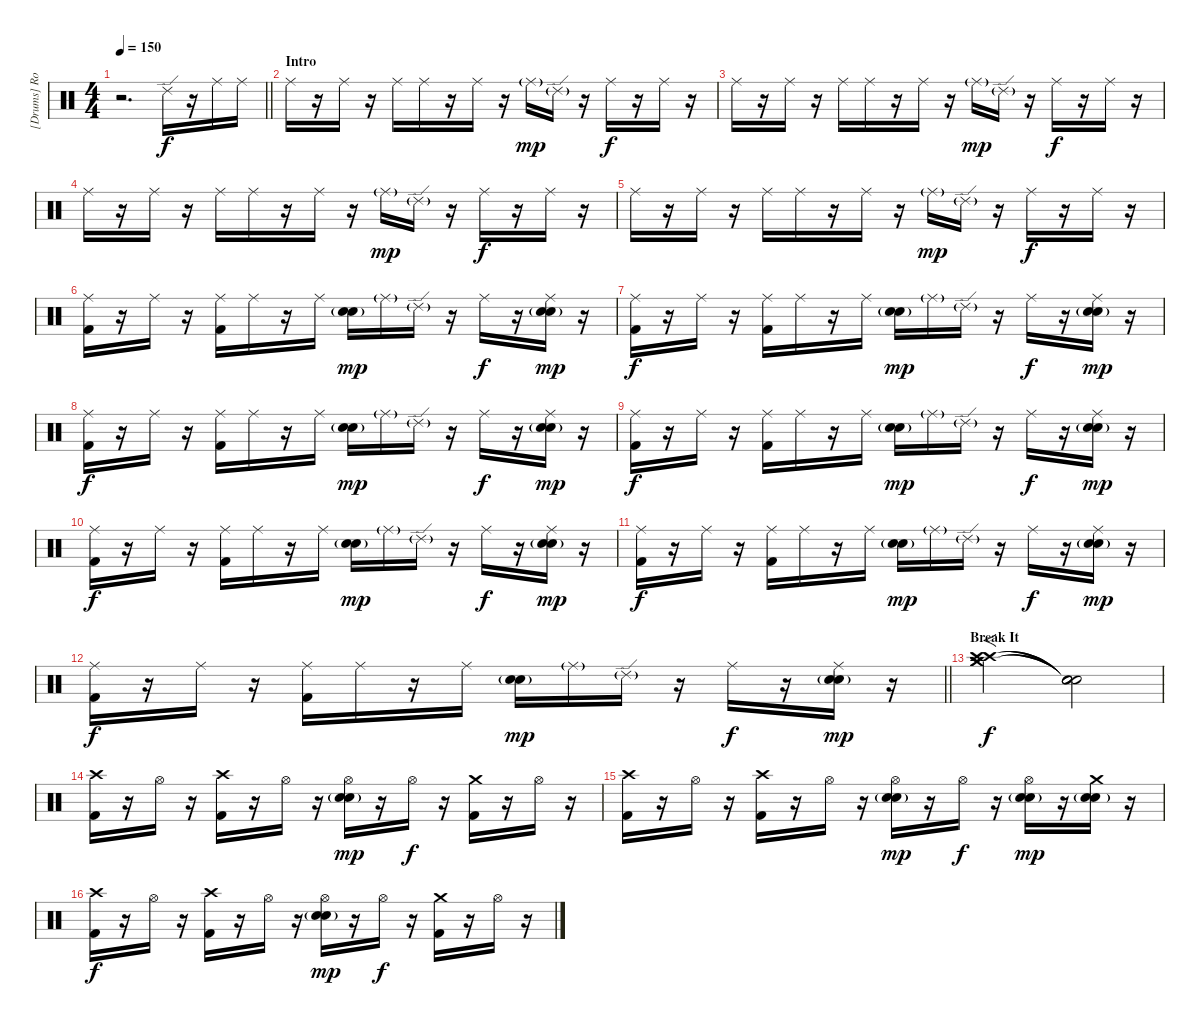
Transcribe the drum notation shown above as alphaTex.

\track ("[Drums] Rob Bourdon" "[Drums] Ro") {instrument percussion}
\staff {score}
\articulation defaults
\ts (4 4)
\tempo 150
\clef neutral
\barLineRight lightlight
\ks c
r.2{d dy f} "Ride (edge) 2".16 r.16 "Ride (middle)".16 "Ride (middle)".16 |
\section ("" "Intro")
"Ride (middle)".16 r.16 "Ride (middle)".16 r.16 "Ride (middle)".16 "Ride (middle)".16 r.16 "Ride (middle)".16 r.16 "Ride (middle)"{g}.16{dy mp} "Ride (edge) 2"{g}.16 r.16 "Ride (middle)".16{dy f} r.16 "Ride (middle)".16 r.16 |
"Ride (middle)".16 r.16 "Ride (middle)".16 r.16 "Ride (middle)".16 "Ride (middle)".16 r.16 "Ride (middle)".16 r.16 "Ride (middle)"{g}.16{dy mp} "Ride (edge) 2"{g}.16 r.16 "Ride (middle)".16{dy f} r.16 "Ride (middle)".16 r.16 |
"Ride (middle)".16 r.16 "Ride (middle)".16 r.16 "Ride (middle)".16 "Ride (middle)".16 r.16 "Ride (middle)".16 r.16 "Ride (middle)"{g}.16{dy mp} "Ride (edge) 2"{g}.16 r.16 "Ride (middle)".16{dy f} r.16 "Ride (middle)".16 r.16 |
"Ride (middle)".16 r.16 "Ride (middle)".16 r.16 "Ride (middle)".16 "Ride (middle)".16 r.16 "Ride (middle)".16 r.16 "Ride (middle)"{g}.16{dy mp} "Ride (edge) 2"{g}.16 r.16 "Ride (middle)".16{dy f} r.16 "Ride (middle)".16 r.16 |
("Ride (middle)" "Kick (hit) 2").16 r.16 "Ride (middle)".16 r.16 ("Ride (middle)" "Kick (hit) 2").16 "Ride (middle)".16 r.16 "Ride (middle)".16 ("Snare (hit) 2"{g} "Snare (hit) 2").16{dy mp} "Ride (middle)"{g}.16 "Ride (edge) 2"{g}.16 r.16 "Ride (middle)".16{dy f} r.16 ("Ride (middle)" "Snare (hit) 2"{g} "Snare (hit) 2").16{dy mp} r.16 |
("Ride (middle)" "Kick (hit) 2").16{dy f} r.16 "Ride (middle)".16 r.16 ("Ride (middle)" "Kick (hit) 2").16 "Ride (middle)".16 r.16 "Ride (middle)".16 ("Snare (hit) 2"{g} "Snare (hit) 2").16{dy mp} "Ride (middle)"{g}.16 "Ride (edge) 2"{g}.16 r.16 "Ride (middle)".16{dy f} r.16 ("Ride (middle)" "Snare (hit) 2"{g} "Snare (hit) 2").16{dy mp} r.16 |
("Ride (middle)" "Kick (hit) 2").16{dy f} r.16 "Ride (middle)".16 r.16 ("Ride (middle)" "Kick (hit) 2").16 "Ride (middle)".16 r.16 "Ride (middle)".16 ("Snare (hit) 2"{g} "Snare (hit) 2").16{dy mp} "Ride (middle)"{g}.16 "Ride (edge) 2"{g}.16 r.16 "Ride (middle)".16{dy f} r.16 ("Ride (middle)" "Snare (hit) 2"{g} "Snare (hit) 2").16{dy mp} r.16 |
("Ride (middle)" "Kick (hit) 2").16{dy f} r.16 "Ride (middle)".16 r.16 ("Ride (middle)" "Kick (hit) 2").16 "Ride (middle)".16 r.16 "Ride (middle)".16 ("Snare (hit) 2"{g} "Snare (hit) 2").16{dy mp} "Ride (middle)"{g}.16 "Ride (edge) 2"{g}.16 r.16 "Ride (middle)".16{dy f} r.16 ("Ride (middle)" "Snare (hit) 2"{g} "Snare (hit) 2").16{dy mp} r.16 |
("Ride (middle)" "Kick (hit) 2").16{dy f} r.16 "Ride (middle)".16 r.16 ("Ride (middle)" "Kick (hit) 2").16 "Ride (middle)".16 r.16 "Ride (middle)".16 ("Snare (hit) 2"{g} "Snare (hit) 2").16{dy mp} "Ride (middle)"{g}.16 "Ride (edge) 2"{g}.16 r.16 "Ride (middle)".16{dy f} r.16 ("Ride (middle)" "Snare (hit) 2"{g} "Snare (hit) 2").16{dy mp} r.16 |
("Ride (middle)" "Kick (hit) 2").16{dy f} r.16 "Ride (middle)".16 r.16 ("Ride (middle)" "Kick (hit) 2").16 "Ride (middle)".16 r.16 "Ride (middle)".16 ("Snare (hit) 2"{g} "Snare (hit) 2").16{dy mp} "Ride (middle)"{g}.16 "Ride (edge) 2"{g}.16 r.16 "Ride (middle)".16{dy f} r.16 ("Ride (middle)" "Snare (hit) 2"{g} "Snare (hit) 2").16{dy mp} r.16 |
\barLineRight lightlight
("Ride (middle)" "Kick (hit) 2").16{dy f} r.16 "Ride (middle)".16 r.16 ("Ride (middle)" "Kick (hit) 2").16 "Ride (middle)".16 r.16 "Ride (middle)".16 ("Snare (hit) 2"{g} "Snare (hit) 2").16{dy mp} "Ride (middle)"{g}.16 "Ride (edge) 2"{g}.16 r.16 "Ride (middle)".16{dy f} r.16 ("Ride (middle)" "Snare (hit) 2"{g} "Snare (hit) 2").16{dy mp} r.16 |
\section ("" "Break It")
("Crash high (hit)" "Crash medium (hit)" "Crash high (hit)" "Crash medium (hit)").2{f dy f} ("Snare (hit)"{t} "Snare (hit)"{t} "Snare (hit)"{t} "Snare (hit)"{t}).2 |
("Crash high (hit)" "Kick (hit) 2").16 r.16 "Hi-Hat (open)".16 r.16 ("Crash high (hit)" "Kick (hit) 2").16 r.16 "Hi-Hat (open)".16 r.16 ("Hi-Hat (open)" "Snare (hit) 2"{g} "Snare (hit) 2").16{dy mp} r.16 "Hi-Hat (open)".16{dy f} r.16 ("Crash medium (hit)" "Kick (hit) 2").16 r.16 "Hi-Hat (open)".16 r.16 |
("Crash high (hit)" "Kick (hit) 2").16 r.16 "Hi-Hat (open)".16 r.16 ("Crash high (hit)" "Kick (hit) 2").16 r.16 "Hi-Hat (open)".16 r.16 ("Hi-Hat (open)" "Snare (hit) 2"{g} "Snare (hit) 2").16{dy mp} r.16 "Hi-Hat (open)".16{dy f} r.16 ("Hi-Hat (open)" "Snare (hit) 2"{g} "Snare (hit) 2").16{dy mp} r.16 ("Crash medium (hit)" "Snare (hit) 2"{g} "Snare (hit) 2").16 r.16 |
("Crash high (hit)" "Kick (hit) 2").16{dy f} r.16 "Hi-Hat (open)".16 r.16 ("Crash high (hit)" "Kick (hit) 2").16 r.16 "Hi-Hat (open)".16 r.16 ("Hi-Hat (open)" "Snare (hit) 2"{g} "Snare (hit) 2").16{dy mp} r.16 "Hi-Hat (open)".16{dy f} r.16 ("Crash medium (hit)" "Kick (hit) 2").16 r.16 "Hi-Hat (open)".16 r.16
